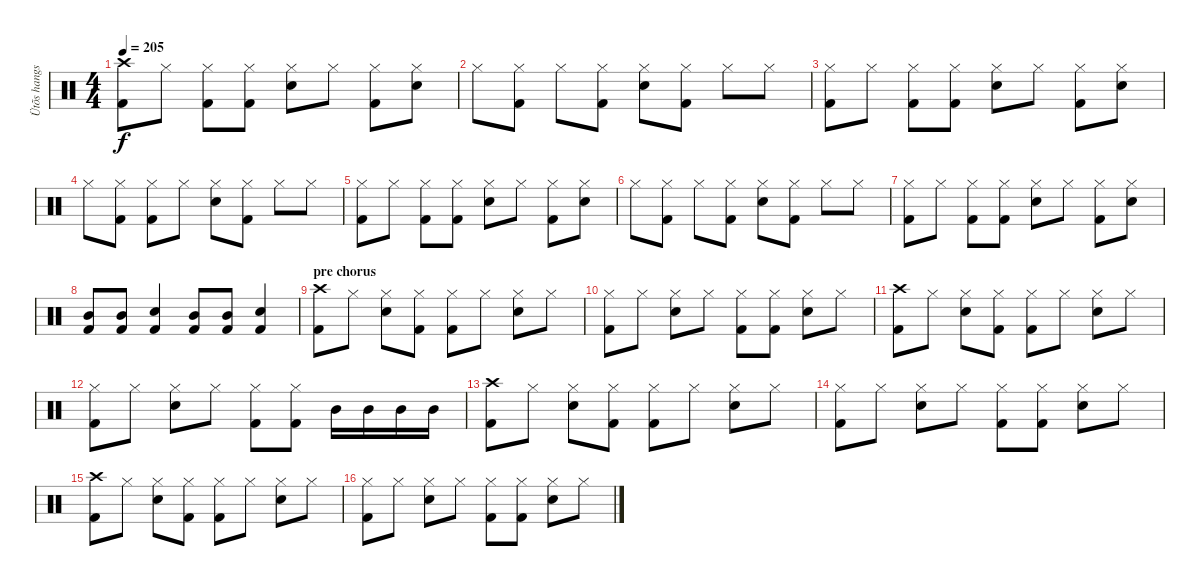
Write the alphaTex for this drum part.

\track ("Ütõs hangszer" "Ütõs hangs") {instrument percussion}
\staff {score}
\articulation defaults
\ts (4 4)
\tempo 205
\clef neutral
\ks c
("Crash high (hit)" "Kick (hit) 2").8{dy f} "Hi-Hat (closed)".8 ("Hi-Hat (closed)" "Kick (hit) 2").8 ("Hi-Hat (closed)" "Kick (hit) 2").8 ("Hi-Hat (closed)" "Snare (hit) 2").8 "Hi-Hat (closed)".8 ("Hi-Hat (closed)" "Kick (hit) 2").8 ("Hi-Hat (closed)" "Snare (hit) 2").8 |
"Hi-Hat (closed)".8 ("Hi-Hat (closed)" "Kick (hit) 2").8 "Hi-Hat (closed)".8 ("Hi-Hat (closed)" "Kick (hit) 2").8 ("Hi-Hat (closed)" "Snare (hit) 2").8 ("Hi-Hat (closed)" "Kick (hit) 2").8 "Hi-Hat (closed)".8 "Hi-Hat (closed)".8 |
("Hi-Hat (closed)" "Kick (hit) 2").8 "Hi-Hat (closed)".8 ("Hi-Hat (closed)" "Kick (hit) 2").8 ("Hi-Hat (closed)" "Kick (hit) 2").8 ("Hi-Hat (closed)" "Snare (hit) 2").8 "Hi-Hat (closed)".8 ("Hi-Hat (closed)" "Kick (hit) 2").8 ("Hi-Hat (closed)" "Snare (hit) 2").8 |
"Hi-Hat (closed)".8 ("Hi-Hat (closed)" "Kick (hit) 2").8 ("Hi-Hat (closed)" "Kick (hit) 2").8 "Hi-Hat (closed)".8 ("Hi-Hat (closed)" "Snare (hit) 2").8 ("Hi-Hat (closed)" "Kick (hit) 2").8 "Hi-Hat (closed)".8 "Hi-Hat (closed)".8 |
("Hi-Hat (closed)" "Kick (hit) 2").8 "Hi-Hat (closed)".8 ("Hi-Hat (closed)" "Kick (hit) 2").8 ("Hi-Hat (closed)" "Kick (hit) 2").8 ("Hi-Hat (closed)" "Snare (hit) 2").8 "Hi-Hat (closed)".8 ("Hi-Hat (closed)" "Kick (hit) 2").8 ("Hi-Hat (closed)" "Snare (hit) 2").8 |
"Hi-Hat (closed)".8 ("Hi-Hat (closed)" "Kick (hit) 2").8 "Hi-Hat (closed)".8 ("Hi-Hat (closed)" "Kick (hit) 2").8 ("Hi-Hat (closed)" "Snare (hit) 2").8 ("Hi-Hat (closed)" "Kick (hit) 2").8 "Hi-Hat (closed)".8 "Hi-Hat (closed)".8 |
("Hi-Hat (closed)" "Kick (hit) 2").8 "Hi-Hat (closed)".8 ("Hi-Hat (closed)" "Kick (hit) 2").8 ("Hi-Hat (closed)" "Kick (hit) 2").8 ("Hi-Hat (closed)" "Snare (hit) 2").8 "Hi-Hat (closed)".8 ("Hi-Hat (closed)" "Kick (hit) 2").8 ("Hi-Hat (closed)" "Snare (hit) 2").8 |
("Mid Tom (hit)" "Kick (hit) 2").8 ("Mid Tom (hit)" "Kick (hit) 2").8 ("Kick (hit) 2" "Snare (hit) 2").4 ("Mid Tom (hit)" "Kick (hit) 2").8 ("Mid Tom (hit)" "Kick (hit) 2").8 ("Snare (hit) 2" "Kick (hit) 2").4 |
\section ("" "pre chorus")
("Crash high (hit)" "Kick (hit) 2").8 "Hi-Hat (closed)".8 ("Hi-Hat (closed)" "Snare (hit) 2").8 ("Hi-Hat (closed)" "Kick (hit) 2").8 ("Hi-Hat (closed)" "Kick (hit) 2").8 "Hi-Hat (closed)".8 ("Hi-Hat (closed)" "Snare (hit) 2").8 "Hi-Hat (closed)".8 |
("Hi-Hat (closed)" "Kick (hit) 2").8 "Hi-Hat (closed)".8 ("Hi-Hat (closed)" "Snare (hit) 2").8 "Hi-Hat (closed)".8 ("Hi-Hat (closed)" "Kick (hit) 2").8 ("Hi-Hat (closed)" "Kick (hit) 2").8 ("Hi-Hat (closed)" "Snare (hit) 2").8 "Hi-Hat (closed)".8 |
("Crash high (hit)" "Kick (hit) 2").8 "Hi-Hat (closed)".8 ("Hi-Hat (closed)" "Snare (hit) 2").8 ("Hi-Hat (closed)" "Kick (hit) 2").8 ("Hi-Hat (closed)" "Kick (hit) 2").8 "Hi-Hat (closed)".8 ("Hi-Hat (closed)" "Snare (hit) 2").8 "Hi-Hat (closed)".8 |
("Hi-Hat (closed)" "Kick (hit) 2").8 "Hi-Hat (closed)".8 ("Hi-Hat (closed)" "Snare (hit) 2").8 "Hi-Hat (closed)".8 ("Hi-Hat (closed)" "Kick (hit) 2").8 ("Hi-Hat (closed)" "Kick (hit) 2").8 "Mid Tom (hit)".16 "Mid Tom (hit)".16 "Mid Tom (hit)".16 "Mid Tom (hit)".16 |
("Crash high (hit)" "Kick (hit) 2").8 "Hi-Hat (closed)".8 ("Hi-Hat (closed)" "Snare (hit) 2").8 ("Hi-Hat (closed)" "Kick (hit) 2").8 ("Hi-Hat (closed)" "Kick (hit) 2").8 "Hi-Hat (closed)".8 ("Hi-Hat (closed)" "Snare (hit) 2").8 "Hi-Hat (closed)".8 |
("Hi-Hat (closed)" "Kick (hit) 2").8 "Hi-Hat (closed)".8 ("Hi-Hat (closed)" "Snare (hit) 2").8 "Hi-Hat (closed)".8 ("Hi-Hat (closed)" "Kick (hit) 2").8 ("Hi-Hat (closed)" "Kick (hit) 2").8 ("Hi-Hat (closed)" "Snare (hit) 2").8 "Hi-Hat (closed)".8 |
("Crash high (hit)" "Kick (hit) 2").8 "Hi-Hat (closed)".8 ("Hi-Hat (closed)" "Snare (hit) 2").8 ("Hi-Hat (closed)" "Kick (hit) 2").8 ("Hi-Hat (closed)" "Kick (hit) 2").8 "Hi-Hat (closed)".8 ("Hi-Hat (closed)" "Snare (hit) 2").8 "Hi-Hat (closed)".8 |
("Hi-Hat (closed)" "Kick (hit) 2").8 "Hi-Hat (closed)".8 ("Hi-Hat (closed)" "Snare (hit) 2").8 "Hi-Hat (closed)".8 ("Hi-Hat (closed)" "Kick (hit) 2").8 ("Hi-Hat (closed)" "Kick (hit) 2").8 ("Hi-Hat (closed)" "Snare (hit) 2").8 "Hi-Hat (closed)".8
